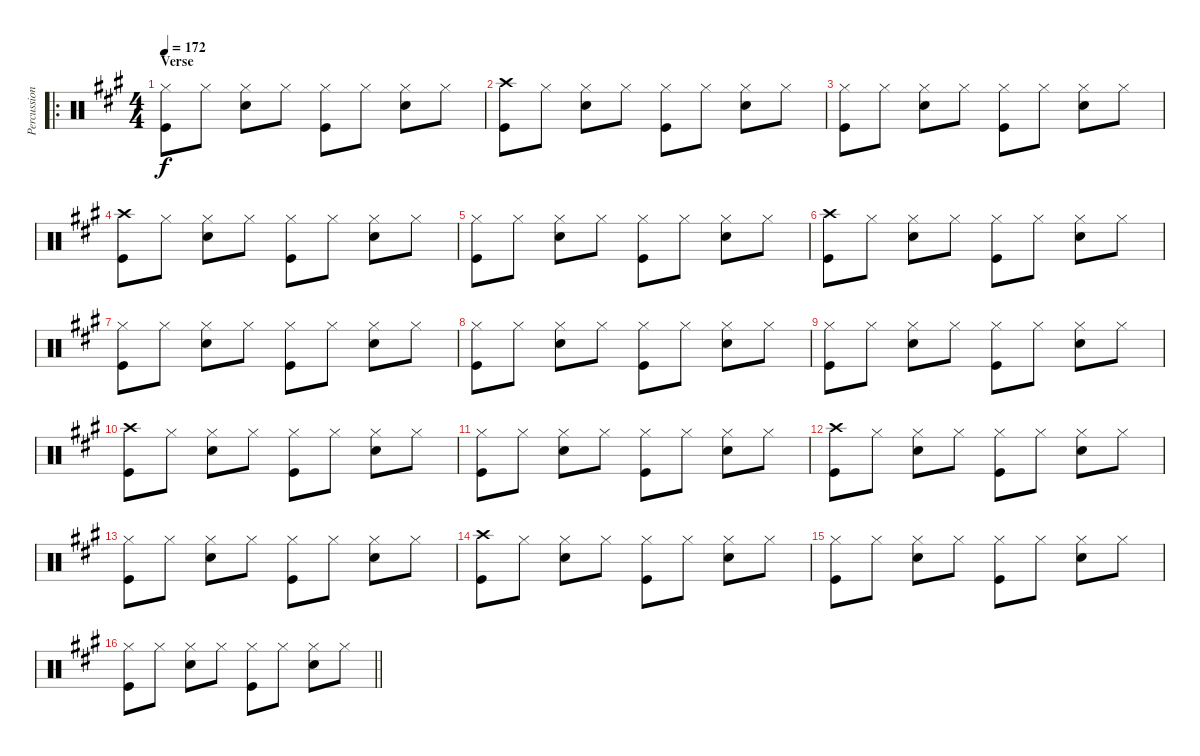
\track ("Percussion" "Percussion") {instrument percussion}
\staff {score}
\articulation defaults
\ro
\ts (4 4)
\section ("" "Verse")
\tempo 172
\clef neutral
\ks a
("Hi-Hat (closed)" "Kick (hit)").8{dy f} "Hi-Hat (closed)".8 ("Hi-Hat (closed)" "Snare (hit) 2").8 "Hi-Hat (closed)".8 ("Hi-Hat (closed)" "Kick (hit)").8 "Hi-Hat (closed)".8 ("Hi-Hat (closed)" "Snare (hit) 2").8 "Hi-Hat (closed)".8 |
("Crash high (hit)" "Kick (hit)").8 "Hi-Hat (closed)".8 ("Hi-Hat (closed)" "Snare (hit) 2").8 "Hi-Hat (closed)".8 ("Hi-Hat (closed)" "Kick (hit)").8 "Hi-Hat (closed)".8 ("Hi-Hat (closed)" "Snare (hit) 2").8 "Hi-Hat (closed)".8 |
("Hi-Hat (closed)" "Kick (hit)").8 "Hi-Hat (closed)".8 ("Hi-Hat (closed)" "Snare (hit) 2").8 "Hi-Hat (closed)".8 ("Hi-Hat (closed)" "Kick (hit)").8 "Hi-Hat (closed)".8 ("Hi-Hat (closed)" "Snare (hit) 2").8 "Hi-Hat (closed)".8 |
("Crash high (hit)" "Kick (hit)").8 "Hi-Hat (closed)".8 ("Hi-Hat (closed)" "Snare (hit) 2").8 "Hi-Hat (closed)".8 ("Hi-Hat (closed)" "Kick (hit)").8 "Hi-Hat (closed)".8 ("Hi-Hat (closed)" "Snare (hit) 2").8 "Hi-Hat (closed)".8 |
("Hi-Hat (closed)" "Kick (hit)").8 "Hi-Hat (closed)".8 ("Hi-Hat (closed)" "Snare (hit) 2").8 "Hi-Hat (closed)".8 ("Hi-Hat (closed)" "Kick (hit)").8 "Hi-Hat (closed)".8 ("Hi-Hat (closed)" "Snare (hit) 2").8 "Hi-Hat (closed)".8 |
("Crash high (hit)" "Kick (hit)").8 "Hi-Hat (closed)".8 ("Hi-Hat (closed)" "Snare (hit) 2").8 "Hi-Hat (closed)".8 ("Hi-Hat (closed)" "Kick (hit)").8 "Hi-Hat (closed)".8 ("Hi-Hat (closed)" "Snare (hit) 2").8 "Hi-Hat (closed)".8 |
("Hi-Hat (closed)" "Kick (hit)").8 "Hi-Hat (closed)".8 ("Hi-Hat (closed)" "Snare (hit) 2").8 "Hi-Hat (closed)".8 ("Hi-Hat (closed)" "Kick (hit)").8 "Hi-Hat (closed)".8 ("Hi-Hat (closed)" "Snare (hit) 2").8 "Hi-Hat (closed)".8 |
("Hi-Hat (closed)" "Kick (hit)").8 "Hi-Hat (closed)".8 ("Hi-Hat (closed)" "Snare (hit) 2").8 "Hi-Hat (closed)".8 ("Hi-Hat (closed)" "Kick (hit)").8 "Hi-Hat (closed)".8 ("Hi-Hat (closed)" "Snare (hit) 2").8 "Hi-Hat (closed)".8 |
("Hi-Hat (closed)" "Kick (hit)").8 "Hi-Hat (closed)".8 ("Hi-Hat (closed)" "Snare (hit) 2").8 "Hi-Hat (closed)".8 ("Hi-Hat (closed)" "Kick (hit)").8 "Hi-Hat (closed)".8 ("Hi-Hat (closed)" "Snare (hit) 2").8 "Hi-Hat (closed)".8 |
("Crash high (hit)" "Kick (hit)").8 "Hi-Hat (closed)".8 ("Hi-Hat (closed)" "Snare (hit) 2").8 "Hi-Hat (closed)".8 ("Hi-Hat (closed)" "Kick (hit)").8 "Hi-Hat (closed)".8 ("Hi-Hat (closed)" "Snare (hit) 2").8 "Hi-Hat (closed)".8 |
("Hi-Hat (closed)" "Kick (hit)").8 "Hi-Hat (closed)".8 ("Hi-Hat (closed)" "Snare (hit) 2").8 "Hi-Hat (closed)".8 ("Hi-Hat (closed)" "Kick (hit)").8 "Hi-Hat (closed)".8 ("Hi-Hat (closed)" "Snare (hit) 2").8 "Hi-Hat (closed)".8 |
("Crash high (hit)" "Kick (hit)").8 "Hi-Hat (closed)".8 ("Hi-Hat (closed)" "Snare (hit) 2").8 "Hi-Hat (closed)".8 ("Hi-Hat (closed)" "Kick (hit)").8 "Hi-Hat (closed)".8 ("Hi-Hat (closed)" "Snare (hit) 2").8 "Hi-Hat (closed)".8 |
("Hi-Hat (closed)" "Kick (hit)").8 "Hi-Hat (closed)".8 ("Hi-Hat (closed)" "Snare (hit) 2").8 "Hi-Hat (closed)".8 ("Hi-Hat (closed)" "Kick (hit)").8 "Hi-Hat (closed)".8 ("Hi-Hat (closed)" "Snare (hit) 2").8 "Hi-Hat (closed)".8 |
("Crash high (hit)" "Kick (hit)").8 "Hi-Hat (closed)".8 ("Hi-Hat (closed)" "Snare (hit) 2").8 "Hi-Hat (closed)".8 ("Hi-Hat (closed)" "Kick (hit)").8 "Hi-Hat (closed)".8 ("Hi-Hat (closed)" "Snare (hit) 2").8 "Hi-Hat (closed)".8 |
("Hi-Hat (closed)" "Kick (hit)").8 "Hi-Hat (closed)".8 ("Hi-Hat (closed)" "Snare (hit) 2").8 "Hi-Hat (closed)".8 ("Hi-Hat (closed)" "Kick (hit)").8 "Hi-Hat (closed)".8 ("Hi-Hat (closed)" "Snare (hit) 2").8 "Hi-Hat (closed)".8 |
\barLineRight lightlight
("Hi-Hat (closed)" "Kick (hit)").8 "Hi-Hat (closed)".8 ("Hi-Hat (closed)" "Snare (hit) 2").8 "Hi-Hat (closed)".8 ("Hi-Hat (closed)" "Kick (hit)").8 "Hi-Hat (closed)".8 ("Hi-Hat (closed)" "Snare (hit) 2").8 "Hi-Hat (closed)".8
